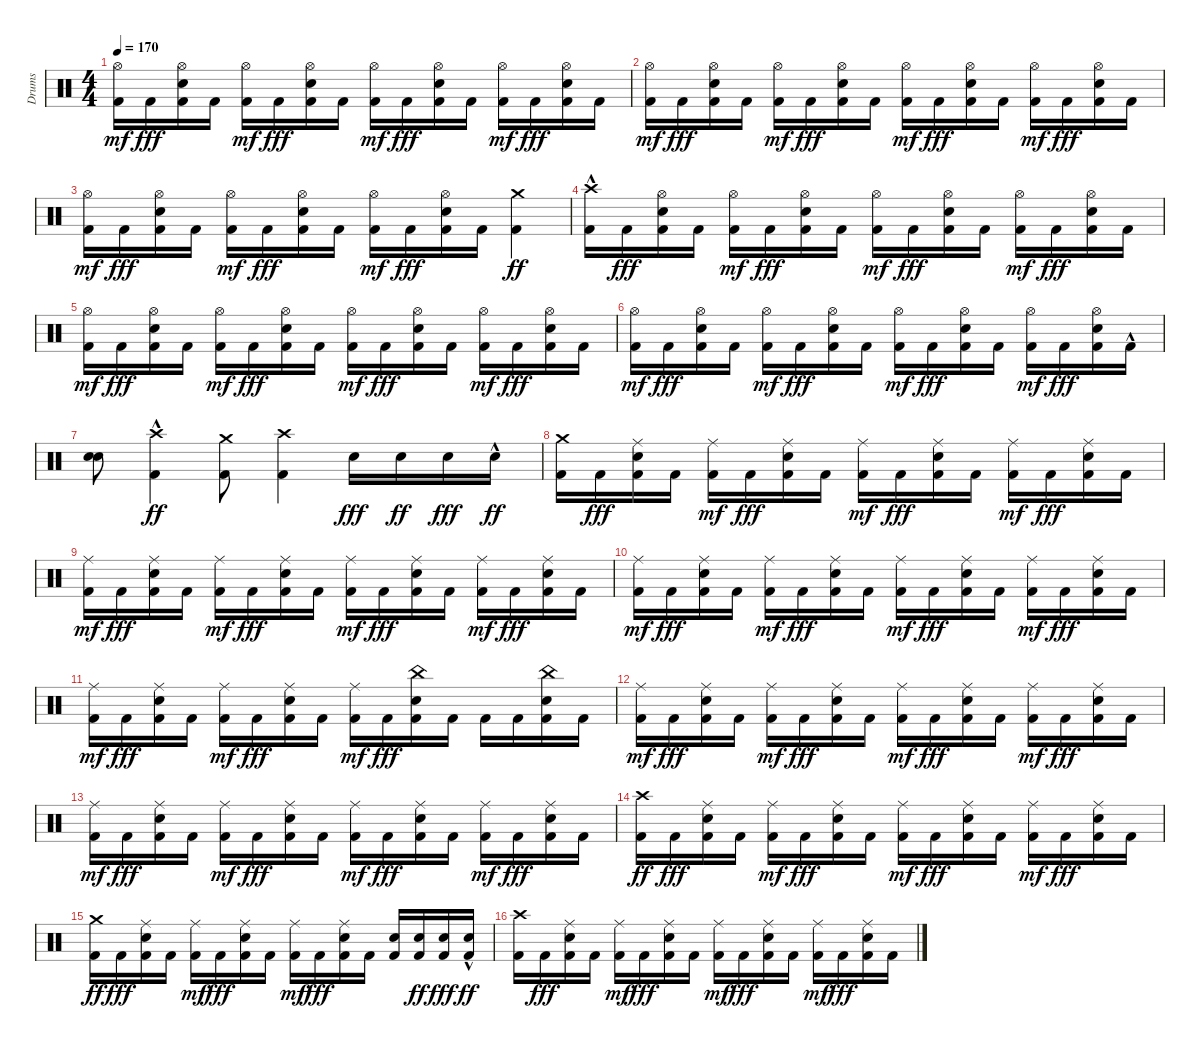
\track ("Drums" "Drums") {instrument percussion}
\staff {score}
\articulation defaults
\ts (4 4)
\tempo 170
\clef neutral
\ks c
("Kick (hit) 2" "Hi-Hat (open)").16{dy mf} "Kick (hit) 2".16{dy fff} ("Kick (hit) 2" "Snare (hit) 2" "Hi-Hat (open)").16 "Kick (hit) 2".16 ("Kick (hit) 2" "Hi-Hat (open)").16{dy mf} "Kick (hit) 2".16{dy fff} ("Kick (hit) 2" "Snare (hit) 2" "Hi-Hat (open)").16 "Kick (hit) 2".16 ("Kick (hit) 2" "Hi-Hat (open)").16{dy mf} "Kick (hit) 2".16{dy fff} ("Kick (hit) 2" "Snare (hit) 2" "Hi-Hat (open)").16 "Kick (hit) 2".16 ("Kick (hit) 2" "Hi-Hat (open)").16{dy mf} "Kick (hit) 2".16{dy fff} ("Kick (hit) 2" "Snare (hit) 2" "Hi-Hat (open)").16 "Kick (hit) 2".16 |
("Kick (hit) 2" "Hi-Hat (open)").16{dy mf} "Kick (hit) 2".16{dy fff} ("Kick (hit) 2" "Snare (hit) 2" "Hi-Hat (open)").16 "Kick (hit) 2".16 ("Kick (hit) 2" "Hi-Hat (open)").16{dy mf} "Kick (hit) 2".16{dy fff} ("Kick (hit) 2" "Snare (hit) 2" "Hi-Hat (open)").16 "Kick (hit) 2".16 ("Kick (hit) 2" "Hi-Hat (open)").16{dy mf} "Kick (hit) 2".16{dy fff} ("Kick (hit) 2" "Snare (hit) 2" "Hi-Hat (open)").16 "Kick (hit) 2".16 ("Kick (hit) 2" "Hi-Hat (open)").16{dy mf} "Kick (hit) 2".16{dy fff} ("Kick (hit) 2" "Snare (hit) 2" "Hi-Hat (open)").16 "Kick (hit) 2".16 |
("Kick (hit) 2" "Hi-Hat (open)").16{dy mf} "Kick (hit) 2".16{dy fff} ("Kick (hit) 2" "Snare (hit) 2" "Hi-Hat (open)").16 "Kick (hit) 2".16 ("Kick (hit) 2" "Hi-Hat (open)").16{dy mf} "Kick (hit) 2".16{dy fff} ("Kick (hit) 2" "Snare (hit) 2" "Hi-Hat (open)").16 "Kick (hit) 2".16 ("Kick (hit) 2" "Hi-Hat (open)").16{dy mf} "Kick (hit) 2".16{dy fff} ("Kick (hit) 2" "Snare (hit) 2" "Hi-Hat (open)").16 "Kick (hit) 2".16 ("Kick (hit) 2" "Crash medium (hit)").4{dy ff} |
("Kick (hit) 2" "Crash high (hit)"{hac}).16 "Kick (hit) 2".16{dy fff} ("Kick (hit) 2" "Snare (hit) 2" "Hi-Hat (open)").16 "Kick (hit) 2".16 ("Kick (hit) 2" "Hi-Hat (open)").16{dy mf} "Kick (hit) 2".16{dy fff} ("Kick (hit) 2" "Snare (hit) 2" "Hi-Hat (open)").16 "Kick (hit) 2".16 ("Kick (hit) 2" "Hi-Hat (open)").16{dy mf} "Kick (hit) 2".16{dy fff} ("Kick (hit) 2" "Snare (hit) 2" "Hi-Hat (open)").16 "Kick (hit) 2".16 ("Kick (hit) 2" "Hi-Hat (open)").16{dy mf} "Kick (hit) 2".16{dy fff} ("Kick (hit) 2" "Snare (hit) 2" "Hi-Hat (open)").16 "Kick (hit) 2".16 |
("Kick (hit) 2" "Hi-Hat (open)").16{dy mf} "Kick (hit) 2".16{dy fff} ("Kick (hit) 2" "Snare (hit) 2" "Hi-Hat (open)").16 "Kick (hit) 2".16 ("Kick (hit) 2" "Hi-Hat (open)").16{dy mf} "Kick (hit) 2".16{dy fff} ("Kick (hit) 2" "Snare (hit) 2" "Hi-Hat (open)").16 "Kick (hit) 2".16 ("Kick (hit) 2" "Hi-Hat (open)").16{dy mf} "Kick (hit) 2".16{dy fff} ("Kick (hit) 2" "Snare (hit) 2" "Hi-Hat (open)").16 "Kick (hit) 2".16 ("Kick (hit) 2" "Hi-Hat (open)").16{dy mf} "Kick (hit) 2".16{dy fff} ("Kick (hit) 2" "Snare (hit) 2" "Hi-Hat (open)").16 "Kick (hit) 2".16 |
("Kick (hit) 2" "Hi-Hat (open)").16{dy mf} "Kick (hit) 2".16{dy fff} ("Kick (hit) 2" "Snare (hit) 2" "Hi-Hat (open)").16 "Kick (hit) 2".16 ("Kick (hit) 2" "Hi-Hat (open)").16{dy mf} "Kick (hit) 2".16{dy fff} ("Kick (hit) 2" "Snare (hit) 2" "Hi-Hat (open)").16 "Kick (hit) 2".16 ("Kick (hit) 2" "Hi-Hat (open)").16{dy mf} "Kick (hit) 2".16{dy fff} ("Kick (hit) 2" "Snare (hit) 2" "Hi-Hat (open)").16 "Kick (hit) 2".16 ("Kick (hit) 2" "Hi-Hat (open)").16{dy mf} "Kick (hit) 2".16{dy fff} ("Kick (hit) 2" "Snare (hit) 2" "Hi-Hat (open)").16 "Kick (hit) 2"{hac}.16 |
("Snare (hit) 2" "Snare (hit) 2").8 ("Kick (hit) 2" "Crash high (hit)"{hac}).4{dy ff} ("Kick (hit) 2" "Crash medium (hit)").8 ("Kick (hit) 2" "Crash high (hit)").4 "Snare (hit) 2".16{dy fff} "Snare (hit) 2".16{dy ff} "Snare (hit) 2".16{dy fff} "Snare (hit) 2"{hac}.16{dy ff} |
("Kick (hit) 2" "Crash medium (hit)").16 "Kick (hit) 2".16{dy fff} ("Kick (hit) 2" "Snare (hit) 2" "Ride (middle)").16 "Kick (hit) 2".16 ("Kick (hit) 2" "Ride (middle)").16{dy mf} "Kick (hit) 2".16{dy fff} ("Kick (hit) 2" "Snare (hit) 2" "Ride (middle)").16 "Kick (hit) 2".16 ("Kick (hit) 2" "Ride (middle)").16{dy mf} "Kick (hit) 2".16{dy fff} ("Kick (hit) 2" "Snare (hit) 2" "Ride (middle)").16 "Kick (hit) 2".16 ("Kick (hit) 2" "Ride (middle)").16{dy mf} "Kick (hit) 2".16{dy fff} ("Kick (hit) 2" "Snare (hit) 2" "Ride (middle)").16 "Kick (hit) 2".16 |
("Kick (hit) 2" "Ride (middle)").16{dy mf} "Kick (hit) 2".16{dy fff} ("Kick (hit) 2" "Snare (hit) 2" "Ride (middle)").16 "Kick (hit) 2".16 ("Kick (hit) 2" "Ride (middle)").16{dy mf} "Kick (hit) 2".16{dy fff} ("Kick (hit) 2" "Snare (hit) 2" "Ride (middle)").16 "Kick (hit) 2".16 ("Kick (hit) 2" "Ride (middle)").16{dy mf} "Kick (hit) 2".16{dy fff} ("Kick (hit) 2" "Snare (hit) 2" "Ride (middle)").16 "Kick (hit) 2".16 ("Kick (hit) 2" "Ride (middle)").16{dy mf} "Kick (hit) 2".16{dy fff} ("Kick (hit) 2" "Snare (hit) 2" "Ride (middle)").16 "Kick (hit) 2".16 |
("Kick (hit) 2" "Ride (middle)").16{dy mf} "Kick (hit) 2".16{dy fff} ("Kick (hit) 2" "Snare (hit) 2" "Ride (middle)").16 "Kick (hit) 2".16 ("Kick (hit) 2" "Ride (middle)").16{dy mf} "Kick (hit) 2".16{dy fff} ("Kick (hit) 2" "Snare (hit) 2" "Ride (middle)").16 "Kick (hit) 2".16 ("Kick (hit) 2" "Ride (middle)").16{dy mf} "Kick (hit) 2".16{dy fff} ("Kick (hit) 2" "Snare (hit) 2" "Ride (middle)").16 "Kick (hit) 2".16 ("Kick (hit) 2" "Ride (middle)").16{dy mf} "Kick (hit) 2".16{dy fff} ("Kick (hit) 2" "Snare (hit) 2" "Ride (middle)").16 "Kick (hit) 2".16 |
("Kick (hit) 2" "Ride (middle)").16{dy mf} "Kick (hit) 2".16{dy fff} ("Kick (hit) 2" "Snare (hit) 2" "Ride (middle)").16 "Kick (hit) 2".16 ("Kick (hit) 2" "Ride (middle)").16{dy mf} "Kick (hit) 2".16{dy fff} ("Kick (hit) 2" "Snare (hit) 2" "Ride (middle)").16 "Kick (hit) 2".16 ("Kick (hit) 2" "Ride (middle)").16{dy mf} "Kick (hit) 2".16{dy fff} ("Kick (hit) 2" "Snare (hit) 2" "China (hit)").16 "Kick (hit) 2".16 "Kick (hit) 2".16 "Kick (hit) 2".16 ("Kick (hit) 2" "Snare (hit) 2" "China (hit)").16 "Kick (hit) 2".16 |
("Kick (hit) 2" "Ride (middle)").16{dy mf} "Kick (hit) 2".16{dy fff} ("Kick (hit) 2" "Snare (hit) 2" "Ride (middle)").16 "Kick (hit) 2".16 ("Kick (hit) 2" "Ride (middle)").16{dy mf} "Kick (hit) 2".16{dy fff} ("Kick (hit) 2" "Snare (hit) 2" "Ride (middle)").16 "Kick (hit) 2".16 ("Kick (hit) 2" "Ride (middle)").16{dy mf} "Kick (hit) 2".16{dy fff} ("Kick (hit) 2" "Snare (hit) 2" "Ride (middle)").16 "Kick (hit) 2".16 ("Kick (hit) 2" "Ride (middle)").16{dy mf} "Kick (hit) 2".16{dy fff} ("Kick (hit) 2" "Snare (hit) 2" "Ride (middle)").16 "Kick (hit) 2".16 |
("Kick (hit) 2" "Ride (middle)").16{dy mf} "Kick (hit) 2".16{dy fff} ("Kick (hit) 2" "Snare (hit) 2" "Ride (middle)").16 "Kick (hit) 2".16 ("Kick (hit) 2" "Ride (middle)").16{dy mf} "Kick (hit) 2".16{dy fff} ("Kick (hit) 2" "Snare (hit) 2" "Ride (middle)").16 "Kick (hit) 2".16 ("Kick (hit) 2" "Ride (middle)").16{dy mf} "Kick (hit) 2".16{dy fff} ("Kick (hit) 2" "Snare (hit) 2" "Ride (middle)").16 "Kick (hit) 2".16 ("Kick (hit) 2" "Ride (middle)").16{dy mf} "Kick (hit) 2".16{dy fff} ("Kick (hit) 2" "Snare (hit) 2" "Ride (middle)").16 "Kick (hit) 2".16 |
("Kick (hit) 2" "Crash high (hit)").16{dy ff} "Kick (hit) 2".16{dy fff} ("Kick (hit) 2" "Snare (hit) 2" "Ride (middle)").16 "Kick (hit) 2".16 ("Kick (hit) 2" "Ride (middle)").16{dy mf} "Kick (hit) 2".16{dy fff} ("Kick (hit) 2" "Snare (hit) 2" "Ride (middle)").16 "Kick (hit) 2".16 ("Kick (hit) 2" "Ride (middle)").16{dy mf} "Kick (hit) 2".16{dy fff} ("Kick (hit) 2" "Snare (hit) 2" "Ride (middle)").16 "Kick (hit) 2".16 ("Kick (hit) 2" "Ride (middle)").16{dy mf} "Kick (hit) 2".16{dy fff} ("Kick (hit) 2" "Snare (hit) 2" "Ride (middle)").16 "Kick (hit) 2".16 |
("Kick (hit) 2" "Crash medium (hit)").16{dy ff} "Kick (hit) 2".16{dy fff} ("Kick (hit) 2" "Snare (hit) 2" "Ride (middle)").16 "Kick (hit) 2".16 ("Kick (hit) 2" "Ride (middle)").16{dy mf} "Kick (hit) 2".16{dy fff} ("Kick (hit) 2" "Snare (hit) 2" "Ride (middle)").16 "Kick (hit) 2".16 ("Kick (hit) 2" "Ride (middle)").16{dy mf} "Kick (hit) 2".16{dy fff} ("Kick (hit) 2" "Snare (hit) 2" "Ride (middle)").16 "Kick (hit) 2".16 ("Kick (hit) 2" "Snare (hit) 2").16 ("Kick (hit) 2" "Snare (hit) 2").16{dy ff} ("Kick (hit) 2" "Snare (hit) 2").16{dy fff} ("Kick (hit) 2" "Snare (hit) 2"{hac}).16{dy ff} |
("Kick (hit) 2" "Crash high (hit)").16 "Kick (hit) 2".16{dy fff} ("Kick (hit) 2" "Snare (hit) 2" "Ride (middle)").16 "Kick (hit) 2".16 ("Kick (hit) 2" "Ride (middle)").16{dy mf} "Kick (hit) 2".16{dy fff} ("Kick (hit) 2" "Snare (hit) 2" "Ride (middle)").16 "Kick (hit) 2".16 ("Kick (hit) 2" "Ride (middle)").16{dy mf} "Kick (hit) 2".16{dy fff} ("Kick (hit) 2" "Snare (hit) 2" "Ride (middle)").16 "Kick (hit) 2".16 ("Kick (hit) 2" "Ride (middle)").16{dy mf} "Kick (hit) 2".16{dy fff} ("Kick (hit) 2" "Snare (hit) 2" "Ride (middle)").16 "Kick (hit) 2".16
